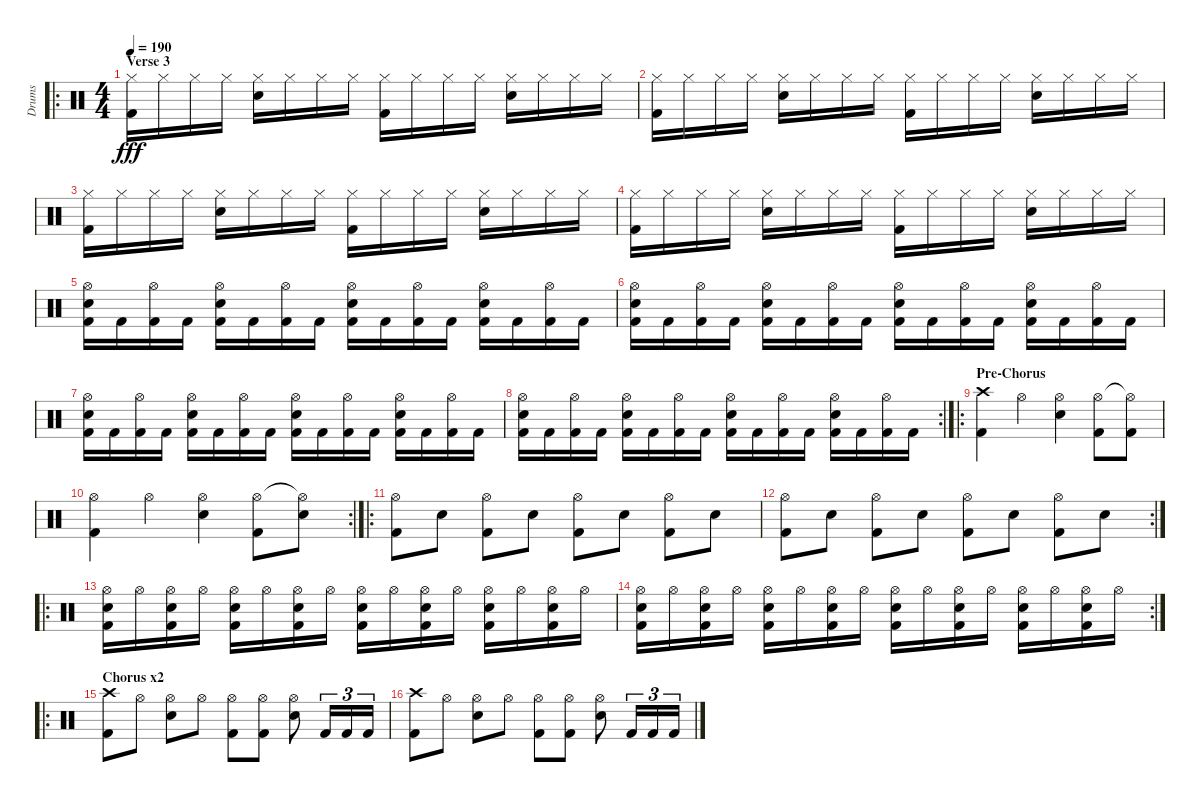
\track ("Drums" "Drums") {instrument percussion}
\staff {score}
\articulation defaults
\ro
\ts (4 4)
\section ("" "Verse 3")
\tempo 190
\clef neutral
\ks c
("Hi-Hat (closed)" "Kick (hit) 2").16{dy fff} "Hi-Hat (closed)".16 "Hi-Hat (closed)".16 "Hi-Hat (closed)".16 ("Hi-Hat (closed)" "Electric Snare (hit)").16 "Hi-Hat (closed)".16 "Hi-Hat (closed)".16 "Hi-Hat (closed)".16 ("Hi-Hat (closed)" "Kick (hit) 2").16 "Hi-Hat (closed)".16 "Hi-Hat (closed)".16 "Hi-Hat (closed)".16 ("Hi-Hat (closed)" "Electric Snare (hit)").16 "Hi-Hat (closed)".16 "Hi-Hat (closed)".16 "Hi-Hat (closed)".16 |
("Hi-Hat (closed)" "Kick (hit) 2").16 "Hi-Hat (closed)".16 "Hi-Hat (closed)".16 "Hi-Hat (closed)".16 ("Hi-Hat (closed)" "Electric Snare (hit)").16 "Hi-Hat (closed)".16 "Hi-Hat (closed)".16 "Hi-Hat (closed)".16 ("Hi-Hat (closed)" "Kick (hit) 2").16 "Hi-Hat (closed)".16 "Hi-Hat (closed)".16 "Hi-Hat (closed)".16 ("Hi-Hat (closed)" "Electric Snare (hit)").16 "Hi-Hat (closed)".16 "Hi-Hat (closed)".16 "Hi-Hat (closed)".16 |
("Hi-Hat (closed)" "Kick (hit) 2").16 "Hi-Hat (closed)".16 "Hi-Hat (closed)".16 "Hi-Hat (closed)".16 ("Hi-Hat (closed)" "Electric Snare (hit)").16 "Hi-Hat (closed)".16 "Hi-Hat (closed)".16 "Hi-Hat (closed)".16 ("Hi-Hat (closed)" "Kick (hit) 2").16 "Hi-Hat (closed)".16 "Hi-Hat (closed)".16 "Hi-Hat (closed)".16 ("Hi-Hat (closed)" "Electric Snare (hit)").16 "Hi-Hat (closed)".16 "Hi-Hat (closed)".16 "Hi-Hat (closed)".16 |
("Hi-Hat (closed)" "Kick (hit) 2").16 "Hi-Hat (closed)".16 "Hi-Hat (closed)".16 "Hi-Hat (closed)".16 ("Hi-Hat (closed)" "Electric Snare (hit)").16 "Hi-Hat (closed)".16 "Hi-Hat (closed)".16 "Hi-Hat (closed)".16 ("Hi-Hat (closed)" "Kick (hit) 2").16 "Hi-Hat (closed)".16 "Hi-Hat (closed)".16 "Hi-Hat (closed)".16 ("Hi-Hat (closed)" "Electric Snare (hit)").16 "Hi-Hat (closed)".16 "Hi-Hat (closed)".16 "Hi-Hat (closed)".16 |
("Kick (hit) 2" "Hi-Hat (open)" "Electric Snare (hit)").16 "Kick (hit) 2".16 ("Kick (hit) 2" "Hi-Hat (open)").16 "Kick (hit) 2".16 ("Kick (hit) 2" "Hi-Hat (open)" "Electric Snare (hit)").16 "Kick (hit) 2".16 ("Kick (hit) 2" "Hi-Hat (open)").16 "Kick (hit) 2".16 ("Kick (hit) 2" "Hi-Hat (open)" "Electric Snare (hit)").16 "Kick (hit) 2".16 ("Kick (hit) 2" "Hi-Hat (open)").16 "Kick (hit) 2".16 ("Kick (hit) 2" "Hi-Hat (open)" "Electric Snare (hit)").16 "Kick (hit) 2".16 ("Kick (hit) 2" "Hi-Hat (open)").16 "Kick (hit) 2".16 |
("Kick (hit) 2" "Hi-Hat (open)" "Electric Snare (hit)").16 "Kick (hit) 2".16 ("Kick (hit) 2" "Hi-Hat (open)").16 "Kick (hit) 2".16 ("Kick (hit) 2" "Hi-Hat (open)" "Electric Snare (hit)").16 "Kick (hit) 2".16 ("Kick (hit) 2" "Hi-Hat (open)").16 "Kick (hit) 2".16 ("Kick (hit) 2" "Hi-Hat (open)" "Electric Snare (hit)").16 "Kick (hit) 2".16 ("Kick (hit) 2" "Hi-Hat (open)").16 "Kick (hit) 2".16 ("Kick (hit) 2" "Hi-Hat (open)" "Electric Snare (hit)").16 "Kick (hit) 2".16 ("Kick (hit) 2" "Hi-Hat (open)").16 "Kick (hit) 2".16 |
("Kick (hit) 2" "Hi-Hat (open)" "Electric Snare (hit)").16 "Kick (hit) 2".16 ("Kick (hit) 2" "Hi-Hat (open)").16 "Kick (hit) 2".16 ("Kick (hit) 2" "Hi-Hat (open)" "Electric Snare (hit)").16 "Kick (hit) 2".16 ("Kick (hit) 2" "Hi-Hat (open)").16 "Kick (hit) 2".16 ("Kick (hit) 2" "Hi-Hat (open)" "Electric Snare (hit)").16 "Kick (hit) 2".16 ("Kick (hit) 2" "Hi-Hat (open)").16 "Kick (hit) 2".16 ("Kick (hit) 2" "Hi-Hat (open)" "Electric Snare (hit)").16 "Kick (hit) 2".16 ("Kick (hit) 2" "Hi-Hat (open)").16 "Kick (hit) 2".16 |
\rc 2
("Kick (hit) 2" "Hi-Hat (open)" "Electric Snare (hit)").16 "Kick (hit) 2".16 ("Kick (hit) 2" "Hi-Hat (open)").16 "Kick (hit) 2".16 ("Kick (hit) 2" "Hi-Hat (open)" "Electric Snare (hit)").16 "Kick (hit) 2".16 ("Kick (hit) 2" "Hi-Hat (open)").16 "Kick (hit) 2".16 ("Kick (hit) 2" "Hi-Hat (open)" "Electric Snare (hit)").16 "Kick (hit) 2".16 ("Kick (hit) 2" "Hi-Hat (open)").16 "Kick (hit) 2".16 ("Kick (hit) 2" "Hi-Hat (open)" "Electric Snare (hit)").16 "Kick (hit) 2".16 ("Kick (hit) 2" "Hi-Hat (open)").16 "Kick (hit) 2".16 |
\ro
\section ("" "Pre-Chorus")
("Crash high (hit)" "Kick (hit) 2").4 "Hi-Hat (open)".4 ("Hi-Hat (open)" "Electric Snare (hit)").4 ("Hi-Hat (open)" "Kick (hit) 2").8 ("Hi-Hat (open)"{t} "Kick (hit) 2").8 |
\rc 2
("Hi-Hat (open)" "Kick (hit) 2").4 "Hi-Hat (open)".4 ("Hi-Hat (open)" "Electric Snare (hit)").4 ("Hi-Hat (open)" "Kick (hit) 2").8 ("Hi-Hat (open)"{t} "Electric Snare (hit)").8 |
\ro
("Kick (hit) 2" "Hi-Hat (open)").8 "Electric Snare (hit)".8 ("Kick (hit) 2" "Hi-Hat (open)").8 "Electric Snare (hit)".8 ("Kick (hit) 2" "Hi-Hat (open)").8 "Electric Snare (hit)".8 ("Kick (hit) 2" "Hi-Hat (open)").8 "Electric Snare (hit)".8 |
\rc 2
("Kick (hit) 2" "Hi-Hat (open)").8 "Electric Snare (hit)".8 ("Kick (hit) 2" "Hi-Hat (open)").8 "Electric Snare (hit)".8 ("Kick (hit) 2" "Hi-Hat (open)").8 "Electric Snare (hit)".8 ("Kick (hit) 2" "Hi-Hat (open)").8 "Electric Snare (hit)".8 |
\ro
("Kick (hit) 2" "Hi-Hat (open)" "Electric Snare (hit)").16 "Hi-Hat (open)".16 ("Kick (hit) 2" "Hi-Hat (open)" "Electric Snare (hit)").16 "Hi-Hat (open)".16 ("Kick (hit) 2" "Hi-Hat (open)" "Electric Snare (hit)").16 "Hi-Hat (open)".16 ("Kick (hit) 2" "Hi-Hat (open)" "Electric Snare (hit)").16 "Hi-Hat (open)".16 ("Kick (hit) 2" "Hi-Hat (open)" "Electric Snare (hit)").16 "Hi-Hat (open)".16 ("Kick (hit) 2" "Hi-Hat (open)" "Electric Snare (hit)").16 "Hi-Hat (open)".16 ("Kick (hit) 2" "Hi-Hat (open)" "Electric Snare (hit)").16 "Hi-Hat (open)".16 ("Kick (hit) 2" "Hi-Hat (open)" "Electric Snare (hit)").16 "Hi-Hat (open)".16 |
\rc 2
("Kick (hit) 2" "Hi-Hat (open)" "Electric Snare (hit)").16 "Hi-Hat (open)".16 ("Kick (hit) 2" "Hi-Hat (open)" "Electric Snare (hit)").16 "Hi-Hat (open)".16 ("Kick (hit) 2" "Hi-Hat (open)" "Electric Snare (hit)").16 "Hi-Hat (open)".16 ("Kick (hit) 2" "Hi-Hat (open)" "Electric Snare (hit)").16 "Hi-Hat (open)".16 ("Kick (hit) 2" "Hi-Hat (open)" "Electric Snare (hit)").16 "Hi-Hat (open)".16 ("Kick (hit) 2" "Hi-Hat (open)" "Electric Snare (hit)").16 "Hi-Hat (open)".16 ("Kick (hit) 2" "Hi-Hat (open)" "Electric Snare (hit)").16 "Hi-Hat (open)".16 ("Kick (hit) 2" "Hi-Hat (open)" "Electric Snare (hit)").16 "Hi-Hat (open)".16 |
\ro
\section ("" "Chorus x2")
("Crash high (hit)" "Kick (hit) 2").8 "Hi-Hat (open)".8 ("Hi-Hat (open)" "Electric Snare (hit)").8 "Hi-Hat (open)".8 ("Hi-Hat (open)" "Kick (hit) 2").8 ("Hi-Hat (open)" "Kick (hit) 2").8 ("Hi-Hat (open)" "Electric Snare (hit)").8 "Kick (hit) 2".16{tu (3 2)} "Kick (hit) 2".16{tu (3 2)} "Kick (hit) 2".16{tu (3 2)} |
("Crash high (hit)" "Kick (hit) 2").8 "Hi-Hat (open)".8 ("Hi-Hat (open)" "Electric Snare (hit)").8 "Hi-Hat (open)".8 ("Hi-Hat (open)" "Kick (hit) 2").8 ("Hi-Hat (open)" "Kick (hit) 2").8 ("Hi-Hat (open)" "Electric Snare (hit)").8 "Kick (hit) 2".16{tu (3 2)} "Kick (hit) 2".16{tu (3 2)} "Kick (hit) 2".16{tu (3 2)}
